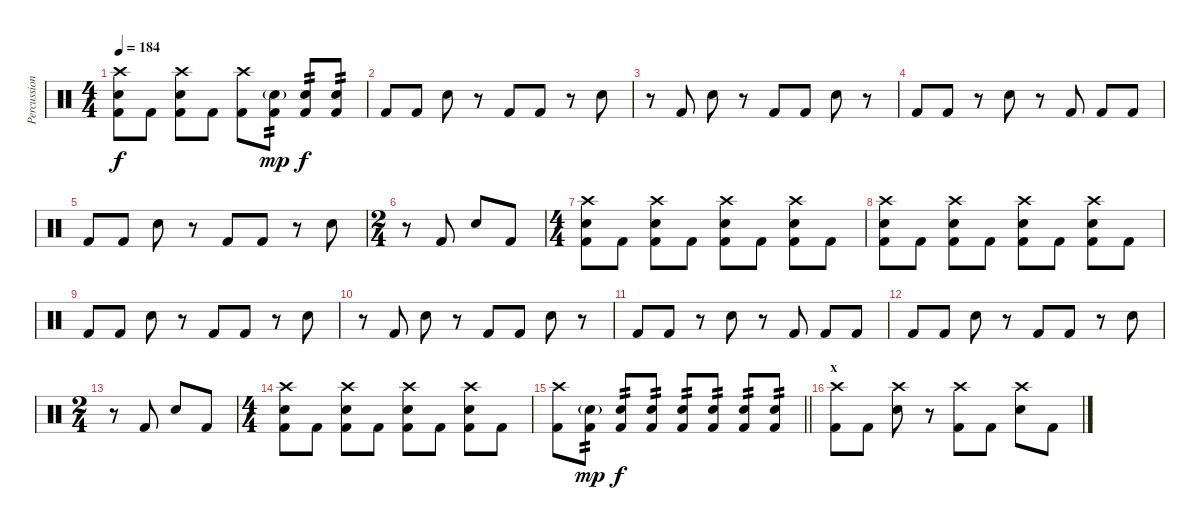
\track ("Percussion" "Percussion") {instrument percussion}
\staff {score}
\articulation defaults
\ts (4 4)
\tempo 184
\clef neutral
\ks c
("Crash high (hit)" "Electric Snare (hit)" "Kick (hit) 2").8{dy f} "Kick (hit) 2".8 ("Crash high (hit)" "Electric Snare (hit)" "Kick (hit) 2").8 "Kick (hit) 2".8 ("Crash high (hit)" "Kick (hit) 2").8 ("Electric Snare (hit)"{g} "Kick (hit) 2").8{tp 2 dy mp} ("Electric Snare (hit)" "Kick (hit) 2").8{tp 2 dy f} ("Electric Snare (hit)" "Kick (hit) 2").8{tp 2} |
"Kick (hit) 2".8 "Kick (hit) 2".8 "Electric Snare (hit)".8 r.8 "Kick (hit) 2".8 "Kick (hit) 2".8 r.8 "Electric Snare (hit)".8 |
r.8 "Kick (hit) 2".8 "Electric Snare (hit)".8 r.8 "Kick (hit) 2".8 "Kick (hit) 2".8 "Electric Snare (hit)".8 r.8 |
"Kick (hit) 2".8 "Kick (hit) 2".8 r.8 "Electric Snare (hit)".8 r.8 "Kick (hit) 2".8 "Kick (hit) 2".8 "Kick (hit) 2".8 |
"Kick (hit) 2".8 "Kick (hit) 2".8 "Electric Snare (hit)".8 r.8 "Kick (hit) 2".8 "Kick (hit) 2".8 r.8 "Electric Snare (hit)".8 |
\ts (2 4)
r.8 "Kick (hit) 2".8 "Electric Snare (hit)".8 "Kick (hit) 2".8 |
\ts (4 4)
("Crash high (hit)" "Electric Snare (hit)" "Kick (hit) 2").8 "Kick (hit) 2".8 ("Crash high (hit)" "Electric Snare (hit)" "Kick (hit) 2").8 "Kick (hit) 2".8 ("Crash high (hit)" "Electric Snare (hit)" "Kick (hit) 2").8 "Kick (hit) 2".8 ("Crash high (hit)" "Electric Snare (hit)" "Kick (hit) 2").8 "Kick (hit) 2".8 |
("Crash high (hit)" "Electric Snare (hit)" "Kick (hit) 2").8 "Kick (hit) 2".8 ("Crash high (hit)" "Electric Snare (hit)" "Kick (hit) 2").8 "Kick (hit) 2".8 ("Crash high (hit)" "Electric Snare (hit)" "Kick (hit) 2").8 "Kick (hit) 2".8 ("Crash high (hit)" "Electric Snare (hit)" "Kick (hit) 2").8 "Kick (hit) 2".8 |
"Kick (hit) 2".8 "Kick (hit) 2".8 "Electric Snare (hit)".8 r.8 "Kick (hit) 2".8 "Kick (hit) 2".8 r.8 "Electric Snare (hit)".8 |
r.8 "Kick (hit) 2".8 "Electric Snare (hit)".8 r.8 "Kick (hit) 2".8 "Kick (hit) 2".8 "Electric Snare (hit)".8 r.8 |
"Kick (hit) 2".8 "Kick (hit) 2".8 r.8 "Electric Snare (hit)".8 r.8 "Kick (hit) 2".8 "Kick (hit) 2".8 "Kick (hit) 2".8 |
"Kick (hit) 2".8 "Kick (hit) 2".8 "Electric Snare (hit)".8 r.8 "Kick (hit) 2".8 "Kick (hit) 2".8 r.8 "Electric Snare (hit)".8 |
\ts (2 4)
r.8 "Kick (hit) 2".8 "Electric Snare (hit)".8 "Kick (hit) 2".8 |
\ts (4 4)
("Crash high (hit)" "Electric Snare (hit)" "Kick (hit) 2").8 "Kick (hit) 2".8 ("Crash high (hit)" "Electric Snare (hit)" "Kick (hit) 2").8 "Kick (hit) 2".8 ("Crash high (hit)" "Electric Snare (hit)" "Kick (hit) 2").8 "Kick (hit) 2".8 ("Crash high (hit)" "Electric Snare (hit)" "Kick (hit) 2").8 "Kick (hit) 2".8 |
\barLineRight lightlight
("Crash high (hit)" "Kick (hit) 2").8 ("Electric Snare (hit)"{g} "Kick (hit) 2").8{tp 2 dy mp} ("Electric Snare (hit)" "Kick (hit) 2").8{tp 2 dy f} ("Electric Snare (hit)" "Kick (hit) 2").8{tp 2} ("Electric Snare (hit)" "Kick (hit) 2").8{tp 2} ("Electric Snare (hit)" "Kick (hit) 2").8{tp 2} ("Electric Snare (hit)" "Kick (hit) 2").8{tp 2} ("Electric Snare (hit)" "Kick (hit) 2").8{tp 2} |
\section ("" "x")
("Crash high (hit)" "Kick (hit) 2").8 "Kick (hit) 2".8 ("Crash high (hit)" "Electric Snare (hit)").8 r.8 ("Crash high (hit)" "Kick (hit) 2").8 "Kick (hit) 2".8 ("Crash high (hit)" "Electric Snare (hit)").8 "Kick (hit) 2".8
